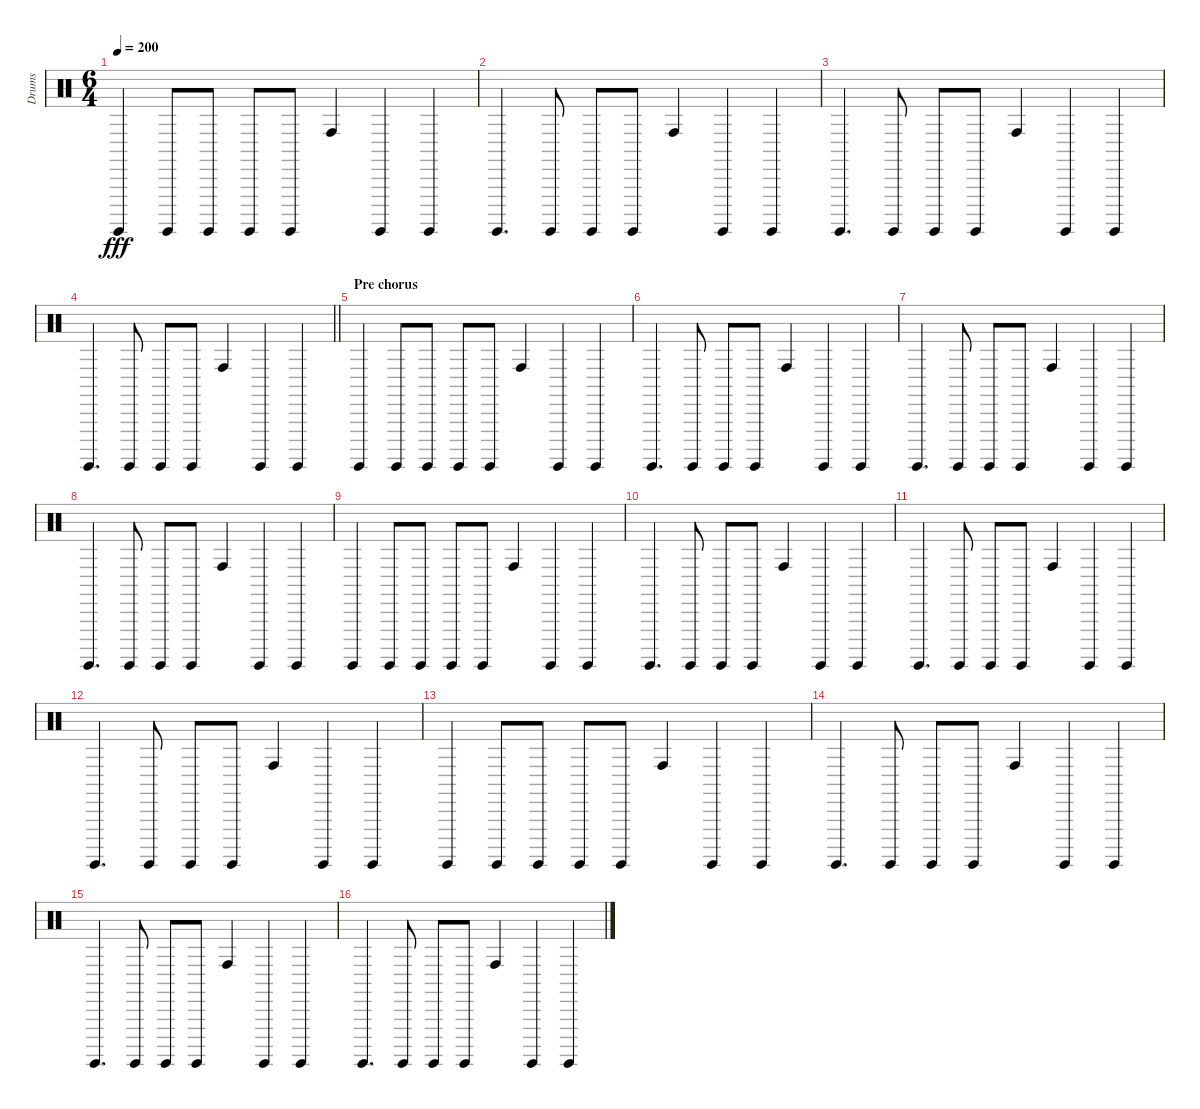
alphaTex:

\track ("Drums" "Drums") {instrument percussion}
\staff {score}
\articulation defaults
\ts (6 4)
\tempo 200
\clef neutral
\ks c "Surdo (hit)".4{dy fff} "Surdo (hit)".8 "Surdo (hit)".8 "Surdo (hit)".8 "Surdo (hit)".8 "Conga high (hit)".4 "Surdo (hit)".4 "Surdo (hit)".4
|
"Surdo (hit)".4{d} "Surdo (hit)".8 "Surdo (hit)".8 "Surdo (hit)".8 "Conga high (hit)".4 "Surdo (hit)".4 "Surdo (hit)".4 |
"Surdo (hit)".4{d} "Surdo (hit)".8 "Surdo (hit)".8 "Surdo (hit)".8 "Conga high (hit)".4 "Surdo (hit)".4 "Surdo (hit)".4 |
\barLineRight lightlight "Surdo (hit)".4{d} "Surdo (hit)".8 "Surdo (hit)".8 "Surdo (hit)".8 "Conga high (hit)".4 "Surdo (hit)".4 "Surdo (hit)".4
|
\section ("" "Pre chorus")
"Surdo (hit)".4 "Surdo (hit)".8 "Surdo (hit)".8 "Surdo (hit)".8 "Surdo (hit)".8 "Conga high (hit)".4 "Surdo (hit)".4 "Surdo (hit)".4 |
"Surdo (hit)".4{d} "Surdo (hit)".8 "Surdo (hit)".8 "Surdo (hit)".8 "Conga high (hit)".4 "Surdo (hit)".4 "Surdo (hit)".4 |
"Surdo (hit)".4{d} "Surdo (hit)".8 "Surdo (hit)".8 "Surdo (hit)".8 "Conga high (hit)".4 "Surdo (hit)".4 "Surdo (hit)".4 |
"Surdo (hit)".4{d} "Surdo (hit)".8 "Surdo (hit)".8 "Surdo (hit)".8 "Conga high (hit)".4 "Surdo (hit)".4 "Surdo (hit)".4 |
"Surdo (hit)".4 "Surdo (hit)".8 "Surdo (hit)".8 "Surdo (hit)".8 "Surdo (hit)".8 "Conga high (hit)".4 "Surdo (hit)".4 "Surdo (hit)".4 |
"Surdo (hit)".4{d} "Surdo (hit)".8 "Surdo (hit)".8 "Surdo (hit)".8 "Conga high (hit)".4 "Surdo (hit)".4 "Surdo (hit)".4 |
"Surdo (hit)".4{d} "Surdo (hit)".8 "Surdo (hit)".8 "Surdo (hit)".8 "Conga high (hit)".4 "Surdo (hit)".4 "Surdo (hit)".4 |
"Surdo (hit)".4{d} "Surdo (hit)".8 "Surdo (hit)".8 "Surdo (hit)".8 "Conga high (hit)".4 "Surdo (hit)".4 "Surdo (hit)".4 |
"Surdo (hit)".4 "Surdo (hit)".8 "Surdo (hit)".8 "Surdo (hit)".8 "Surdo (hit)".8 "Conga high (hit)".4 "Surdo (hit)".4 "Surdo (hit)".4 |
"Surdo (hit)".4{d} "Surdo (hit)".8 "Surdo (hit)".8 "Surdo (hit)".8 "Conga high (hit)".4 "Surdo (hit)".4 "Surdo (hit)".4 |
"Surdo (hit)".4{d} "Surdo (hit)".8 "Surdo (hit)".8 "Surdo (hit)".8 "Conga high (hit)".4 "Surdo (hit)".4 "Surdo (hit)".4 |
"Surdo (hit)".4{d} "Surdo (hit)".8 "Surdo (hit)".8 "Surdo (hit)".8 "Conga high (hit)".4 "Surdo (hit)".4 "Surdo (hit)".4
